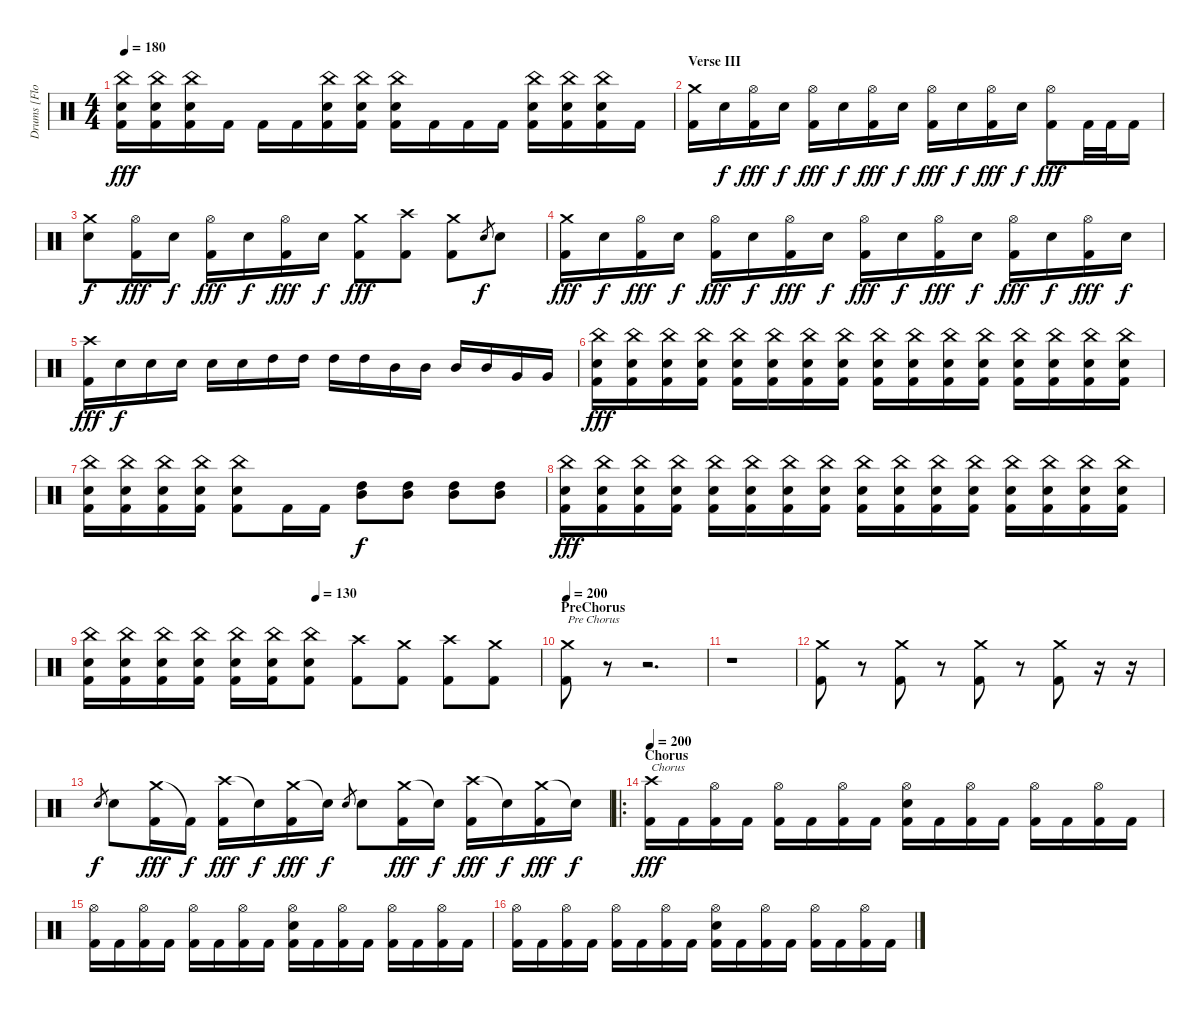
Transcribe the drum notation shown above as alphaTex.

\track ("Drums [Flo Mounier]" "Drums [Flo") {instrument percussion}
\staff {score}
\articulation defaults
\ts (4 4)
\tempo 180
\clef neutral
\ks c
("China (hit)" "Electric Snare (hit)" "Kick (hit) 2").16{dy fff} ("China (hit)" "Electric Snare (hit)" "Kick (hit) 2").16 ("China (hit)" "Electric Snare (hit)" "Kick (hit) 2").16 "Kick (hit) 2".16 "Kick (hit) 2".16 "Kick (hit) 2".16 ("China (hit)" "Electric Snare (hit)" "Kick (hit) 2").16 ("China (hit)" "Electric Snare (hit)" "Kick (hit) 2").16 ("China (hit)" "Electric Snare (hit)" "Kick (hit) 2").16 "Kick (hit) 2".16 "Kick (hit) 2".16 "Kick (hit) 2".16 ("China (hit)" "Electric Snare (hit)" "Kick (hit) 2").16 ("China (hit)" "Electric Snare (hit)" "Kick (hit) 2").16 ("China (hit)" "Electric Snare (hit)" "Kick (hit) 2").16 "Kick (hit) 2".16 |
\section ("" "Verse III")
("Crash medium (hit)" "Kick (hit) 2").16 "Electric Snare (hit)".16{dy f} ("Hi-Hat (open)" "Kick (hit) 2").16{dy fff} "Electric Snare (hit)".16{dy f} ("Hi-Hat (open)" "Kick (hit) 2").16{dy fff} "Electric Snare (hit)".16{dy f} ("Hi-Hat (open)" "Kick (hit) 2").16{dy fff} "Electric Snare (hit)".16{dy f} ("Hi-Hat (open)" "Kick (hit) 2").16{dy fff} "Electric Snare (hit)".16{dy f} ("Hi-Hat (open)" "Kick (hit) 2").16{dy fff} "Electric Snare (hit)".16{dy f} ("Hi-Hat (open)" "Kick (hit) 2").8{dy fff} "Kick (hit) 2".32 "Kick (hit) 2".32 "Kick (hit) 2".16 |
("Crash medium (hit)" "Electric Snare (hit)").8{dy f} ("Hi-Hat (open)" "Kick (hit) 2").16{dy fff} "Electric Snare (hit)".16{dy f} ("Hi-Hat (open)" "Kick (hit) 2").16{dy fff} "Electric Snare (hit)".16{dy f} ("Hi-Hat (open)" "Kick (hit) 2").16{dy fff} "Electric Snare (hit)".16{dy f} ("Crash medium (hit)" "Kick (hit) 2").8{dy fff} ("Crash high (hit)" "Kick (hit) 2").8 ("Crash medium (hit)" "Kick (hit) 2").8 "Electric Snare (hit)".8{gr dy f} "Electric Snare (hit)".8 |
("Crash medium (hit)" "Kick (hit) 2").16{dy fff} "Electric Snare (hit)".16{dy f} ("Hi-Hat (open)" "Kick (hit) 2").16{dy fff} "Electric Snare (hit)".16{dy f} ("Hi-Hat (open)" "Kick (hit) 2").16{dy fff} "Electric Snare (hit)".16{dy f} ("Hi-Hat (open)" "Kick (hit) 2").16{dy fff} "Electric Snare (hit)".16{dy f} ("Hi-Hat (open)" "Kick (hit) 2").16{dy fff} "Electric Snare (hit)".16{dy f} ("Hi-Hat (open)" "Kick (hit) 2").16{dy fff} "Electric Snare (hit)".16{dy f} ("Hi-Hat (open)" "Kick (hit) 2").16{dy fff} "Electric Snare (hit)".16{dy f} ("Hi-Hat (open)" "Kick (hit) 2").16{dy fff} "Electric Snare (hit)".16{dy f} |
("Crash high (hit)" "Kick (hit) 2").16{dy fff} "Electric Snare (hit)".16{dy f} "Electric Snare (hit)".16 "Electric Snare (hit)".16 "Electric Snare (hit)".16 "Electric Snare (hit)".16 "High Tom (hit)".16 "High Tom (hit)".16 "High Tom (hit)".16 "High Tom (hit)".16 "Mid Tom (hit)".16 "Mid Tom (hit)".16 "Mid Tom (hit)".16 "Mid Tom (hit)".16 "Very Low Tom (hit)".16 "Very Low Tom (hit)".16 |
("China (hit)" "Electric Snare (hit)" "Kick (hit) 2").16{dy fff} ("China (hit)" "Electric Snare (hit)" "Kick (hit) 2").16 ("China (hit)" "Electric Snare (hit)" "Kick (hit) 2").16 ("China (hit)" "Electric Snare (hit)" "Kick (hit) 2").16 ("China (hit)" "Electric Snare (hit)" "Kick (hit) 2").16 ("China (hit)" "Electric Snare (hit)" "Kick (hit) 2").16 ("China (hit)" "Electric Snare (hit)" "Kick (hit) 2").16 ("China (hit)" "Electric Snare (hit)" "Kick (hit) 2").16 ("China (hit)" "Electric Snare (hit)" "Kick (hit) 2").16 ("China (hit)" "Electric Snare (hit)" "Kick (hit) 2").16 ("China (hit)" "Electric Snare (hit)" "Kick (hit) 2").16 ("China (hit)" "Electric Snare (hit)" "Kick (hit) 2").16 ("China (hit)" "Electric Snare (hit)" "Kick (hit) 2").16 ("China (hit)" "Electric Snare (hit)" "Kick (hit) 2").16 ("China (hit)" "Electric Snare (hit)" "Kick (hit) 2").16 ("China (hit)" "Electric Snare (hit)" "Kick (hit) 2").16 |
("China (hit)" "Electric Snare (hit)" "Kick (hit) 2").16 ("China (hit)" "Electric Snare (hit)" "Kick (hit) 2").16 ("China (hit)" "Electric Snare (hit)" "Kick (hit) 2").16 ("China (hit)" "Electric Snare (hit)" "Kick (hit) 2").16 ("China (hit)" "Electric Snare (hit)" "Kick (hit) 2").8 "Kick (hit) 2".16 "Kick (hit) 2".16 ("High Tom (hit)" "Mid Tom (hit)").8{dy f} ("High Tom (hit)" "Mid Tom (hit)").8 ("High Tom (hit)" "Mid Tom (hit)").8 ("High Tom (hit)" "Mid Tom (hit)").8 |
("China (hit)" "Electric Snare (hit)" "Kick (hit) 2").16{dy fff} ("China (hit)" "Electric Snare (hit)" "Kick (hit) 2").16 ("China (hit)" "Electric Snare (hit)" "Kick (hit) 2").16 ("China (hit)" "Electric Snare (hit)" "Kick (hit) 2").16 ("China (hit)" "Electric Snare (hit)" "Kick (hit) 2").16 ("China (hit)" "Electric Snare (hit)" "Kick (hit) 2").16 ("China (hit)" "Electric Snare (hit)" "Kick (hit) 2").16 ("China (hit)" "Electric Snare (hit)" "Kick (hit) 2").16 ("China (hit)" "Electric Snare (hit)" "Kick (hit) 2").16 ("China (hit)" "Electric Snare (hit)" "Kick (hit) 2").16 ("China (hit)" "Electric Snare (hit)" "Kick (hit) 2").16 ("China (hit)" "Electric Snare (hit)" "Kick (hit) 2").16 ("China (hit)" "Electric Snare (hit)" "Kick (hit) 2").16 ("China (hit)" "Electric Snare (hit)" "Kick (hit) 2").16 ("China (hit)" "Electric Snare (hit)" "Kick (hit) 2").16 ("China (hit)" "Electric Snare (hit)" "Kick (hit) 2").16 |
\tempo (130 0.5)
("China (hit)" "Electric Snare (hit)" "Kick (hit) 2").16 ("China (hit)" "Electric Snare (hit)" "Kick (hit) 2").16 ("China (hit)" "Electric Snare (hit)" "Kick (hit) 2").16 ("China (hit)" "Electric Snare (hit)" "Kick (hit) 2").16 ("China (hit)" "Electric Snare (hit)" "Kick (hit) 2").16 ("China (hit)" "Electric Snare (hit)" "Kick (hit) 2").16 ("China (hit)" "Electric Snare (hit)" "Kick (hit) 2").8 ("Crash high (hit)" "Kick (hit) 2").8 ("Crash medium (hit)" "Kick (hit) 2").8 ("Crash high (hit)" "Kick (hit) 2").8 ("Crash medium (hit)" "Kick (hit) 2").8 |
\section ("" "PreChorus")
\tempo 200
("Crash medium (hit)" "Kick (hit) 2").8{txt "Pre Chorus"} r.8{volume 0} r.2{d} |
r.1 |
("Crash medium (hit)" "Kick (hit) 2").8{volume 16} r.8{volume 0} ("Crash medium (hit)" "Kick (hit) 2").8{volume 16} r.8{volume 0} ("Crash medium (hit)" "Kick (hit) 2").8{volume 16} r.8{volume 0} ("Crash medium (hit)" "Kick (hit) 2").8{volume 16} r.16{volume 0} r.16{volume 16} |
"Electric Snare (hit)".8{gr dy f} "Electric Snare (hit)".8 ("Crash medium (hit)" "Kick (hit) 2").16{dy fff} "Kick (hit) 2"{t}.16{dy f} ("Crash high (hit)" "Kick (hit) 2").16{dy fff} "Snare (hit)"{t}.16{dy f} ("Crash medium (hit)" "Kick (hit) 2").16{dy fff} "Snare (hit)"{t}.16{dy f} "Electric Snare (hit)".8{gr} "Electric Snare (hit)".8 ("Crash medium (hit)" "Kick (hit) 2").16{dy fff} "Snare (hit)"{t}.16{dy f} ("Crash high (hit)" "Kick (hit) 2").16{dy fff} "Snare (hit)"{t}.16{dy f} ("Crash medium (hit)" "Kick (hit) 2").16{dy fff} "Snare (hit)"{t}.16{dy f} |
\ro
\section ("" "Chorus")
\tempo 200
("Crash high (hit)" "Kick (hit) 2").16{txt "Chorus" dy fff} "Kick (hit) 2".16 ("Hi-Hat (open)" "Kick (hit) 2").16 "Kick (hit) 2".16 ("Hi-Hat (open)" "Kick (hit) 2").16 "Kick (hit) 2".16 ("Hi-Hat (open)" "Kick (hit) 2").16 "Kick (hit) 2".16 ("Hi-Hat (open)" "Electric Snare (hit)" "Kick (hit) 2").16 "Kick (hit) 2".16 ("Hi-Hat (open)" "Kick (hit) 2").16 "Kick (hit) 2".16 ("Hi-Hat (open)" "Kick (hit) 2").16 "Kick (hit) 2".16 ("Hi-Hat (open)" "Kick (hit) 2").16 "Kick (hit) 2".16 |
("Hi-Hat (open)" "Kick (hit) 2").16 "Kick (hit) 2".16 ("Hi-Hat (open)" "Kick (hit) 2").16 "Kick (hit) 2".16 ("Hi-Hat (open)" "Kick (hit) 2").16 "Kick (hit) 2".16 ("Hi-Hat (open)" "Kick (hit) 2").16 "Kick (hit) 2".16 ("Hi-Hat (open)" "Electric Snare (hit)" "Kick (hit) 2").16 "Kick (hit) 2".16 ("Hi-Hat (open)" "Kick (hit) 2").16 "Kick (hit) 2".16 ("Hi-Hat (open)" "Kick (hit) 2").16 "Kick (hit) 2".16 ("Hi-Hat (open)" "Kick (hit) 2").16 "Kick (hit) 2".16 |
("Hi-Hat (open)" "Kick (hit) 2").16 "Kick (hit) 2".16 ("Hi-Hat (open)" "Kick (hit) 2").16 "Kick (hit) 2".16 ("Hi-Hat (open)" "Kick (hit) 2").16 "Kick (hit) 2".16 ("Hi-Hat (open)" "Kick (hit) 2").16 "Kick (hit) 2".16 ("Hi-Hat (open)" "Electric Snare (hit)" "Kick (hit) 2").16 "Kick (hit) 2".16 ("Hi-Hat (open)" "Kick (hit) 2").16 "Kick (hit) 2".16 ("Hi-Hat (open)" "Kick (hit) 2").16 "Kick (hit) 2".16 ("Hi-Hat (open)" "Kick (hit) 2").16 "Kick (hit) 2".16
